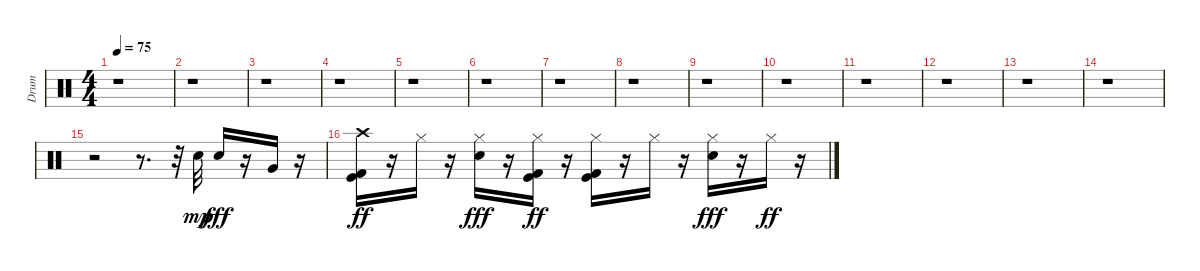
\track ("Drum" "Drum") {instrument percussion}
\staff {score}
\articulation defaults
\ts (4 4)
\tempo 75
\clef neutral
\ks c
r.1{dy mp} |
r.1 |
r.1 |
r.1 |
r.1 |
r.1 |
r.1 |
r.1 |
r.1 |
r.1 |
r.1 |
r.1 |
r.1 |
r.1 |
r.2 r.8{d} r.32 "Electric Snare (hit)".32 "Electric Snare (hit)".16{dy fff} r.16 "Very Low Tom (hit)".16 r.16 |
("Crash high (hit)" "Kick (hit)" "Kick (hit) 2").16{dy ff} r.16 "Hi-Hat (closed)".16 r.16 ("Hi-Hat (closed)" "Electric Snare (hit)").16{dy fff} r.16 ("Kick (hit)" "Kick (hit) 2" "Hi-Hat (closed)").16{dy ff} r.16 ("Kick (hit)" "Kick (hit) 2" "Hi-Hat (closed)").16 r.16 "Hi-Hat (closed)".16 r.16 ("Hi-Hat (closed)" "Electric Snare (hit)").16{dy fff} r.16 "Hi-Hat (closed)".16{dy ff} r.16
